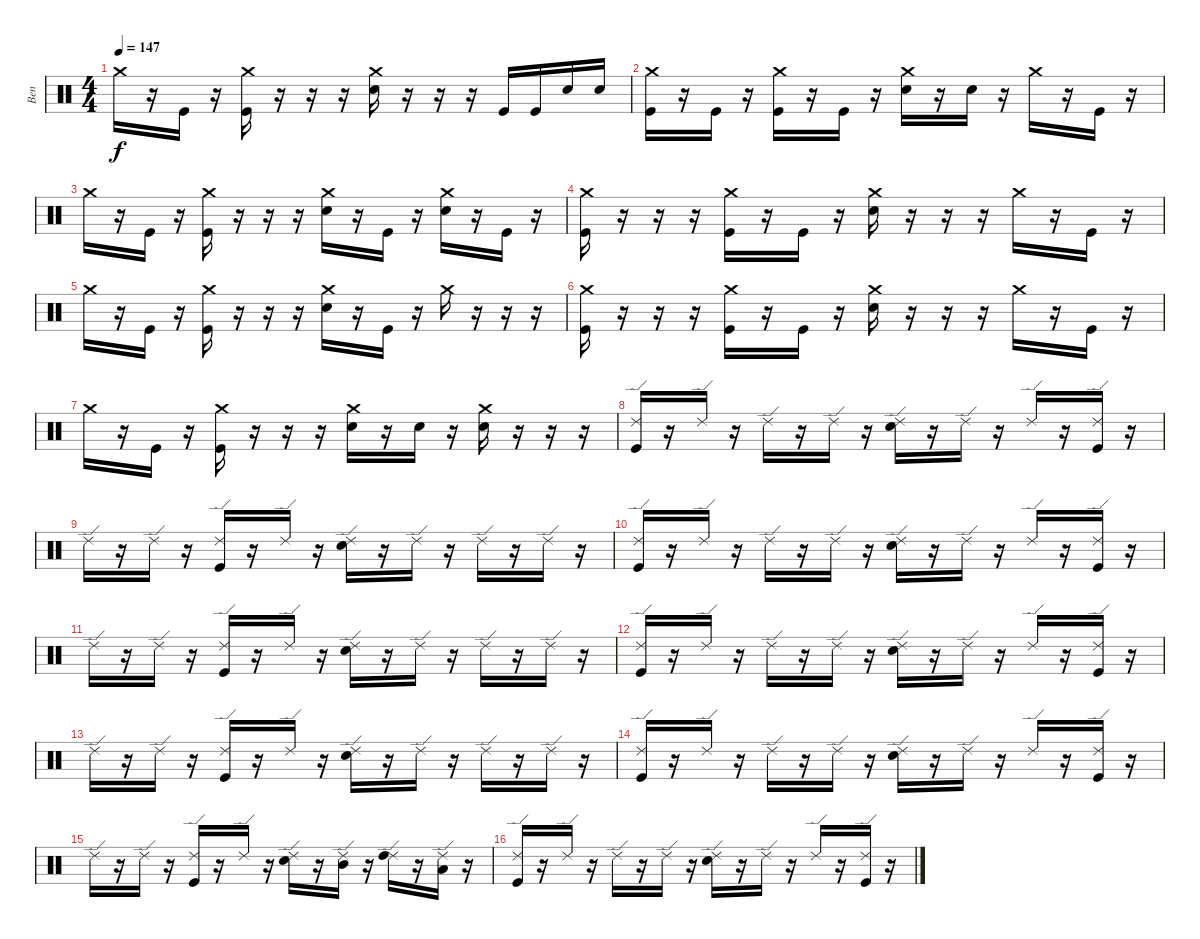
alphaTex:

\track ("Ben" "Ben") {instrument percussion}
\staff {score}
\articulation defaults
\ts (4 4)
\tempo 147
\clef neutral
\ks c "Crash medium (hit)".16{dy f}
r.16 "Kick (hit)".16 r.16 ("Crash medium (hit)" "Kick (hit)").16 r.16 r.16 r.16 ("Crash medium (hit)" "Electric Snare (hit)").16 r.16 r.16 r.16 "Kick (hit)".16 "Kick (hit)".16 "Electric Snare (hit)".16 "Electric Snare (hit)".16 |
("Crash medium (hit)" "Kick (hit)").16 r.16 "Kick (hit)".16 r.16 ("Crash medium (hit)" "Kick (hit)").16 r.16 "Kick (hit)".16 r.16 ("Crash medium (hit)" "Electric Snare (hit)").16 r.16 "Electric Snare (hit)".16 r.16 "Crash medium (hit)".16 r.16 "Kick (hit)".16 r.16 |
"Crash medium (hit)".16 r.16 "Kick (hit)".16 r.16 ("Crash medium (hit)" "Kick (hit)").16 r.16 r.16 r.16 ("Crash medium (hit)" "Electric Snare (hit)").16 r.16 "Kick (hit)".16 r.16 ("Crash medium (hit)" "Electric Snare (hit)").16 r.16 "Kick (hit)".16 r.16 |
("Crash medium (hit)" "Kick (hit)").16 r.16 r.16 r.16 ("Crash medium (hit)" "Kick (hit)").16 r.16 "Kick (hit)".16 r.16 ("Crash medium (hit)" "Electric Snare (hit)").16 r.16 r.16 r.16 "Crash medium (hit)".16 r.16 "Kick (hit)".16 r.16 |
"Crash medium (hit)".16 r.16 "Kick (hit)".16 r.16 ("Crash medium (hit)" "Kick (hit)").16 r.16 r.16 r.16 ("Crash medium (hit)" "Electric Snare (hit)").16 r.16 "Kick (hit)".16 r.16 "Crash medium (hit)".16 r.16 r.16 r.16 |
("Crash medium (hit)" "Kick (hit)").16 r.16 r.16 r.16 ("Crash medium (hit)" "Kick (hit)").16 r.16 "Kick (hit)".16 r.16 ("Crash medium (hit)" "Electric Snare (hit)").16 r.16 r.16 r.16 "Crash medium (hit)".16 r.16 "Kick (hit)".16 r.16 |
"Crash medium (hit)".16 r.16 "Kick (hit)".16 r.16 ("Crash medium (hit)" "Kick (hit)").16 r.16 r.16 r.16 ("Crash medium (hit)" "Electric Snare (hit)").16 r.16 "Electric Snare (hit)".16 r.16 ("Crash medium (hit)" "Electric Snare (hit)").16 r.16 r.16 r.16 |
("Ride (edge) 2" "Kick (hit)").16 r.16 "Ride (edge) 2".16 r.16 "Ride (edge) 2".16 r.16 "Ride (edge) 2".16 r.16 ("Ride (edge) 2" "Electric Snare (hit)").16 r.16 "Ride (edge) 2".16 r.16 "Ride (edge) 2".16 r.16 ("Ride (edge) 2" "Kick (hit)").16 r.16 |
"Ride (edge) 2".16 r.16 "Ride (edge) 2".16 r.16 ("Ride (edge) 2" "Kick (hit)").16 r.16 "Ride (edge) 2".16 r.16 ("Ride (edge) 2" "Electric Snare (hit)").16 r.16 "Ride (edge) 2".16 r.16 "Ride (edge) 2".16 r.16 "Ride (edge) 2".16 r.16 |
("Ride (edge) 2" "Kick (hit)").16 r.16 "Ride (edge) 2".16 r.16 "Ride (edge) 2".16 r.16 "Ride (edge) 2".16 r.16 ("Ride (edge) 2" "Electric Snare (hit)").16 r.16 "Ride (edge) 2".16 r.16 "Ride (edge) 2".16 r.16 ("Ride (edge) 2" "Kick (hit)").16 r.16 |
"Ride (edge) 2".16 r.16 "Ride (edge) 2".16 r.16 ("Ride (edge) 2" "Kick (hit)").16 r.16 "Ride (edge) 2".16 r.16 ("Ride (edge) 2" "Electric Snare (hit)").16 r.16 "Ride (edge) 2".16 r.16 "Ride (edge) 2".16 r.16 "Ride (edge) 2".16 r.16 |
("Ride (edge) 2" "Kick (hit)").16 r.16 "Ride (edge) 2".16 r.16 "Ride (edge) 2".16 r.16 "Ride (edge) 2".16 r.16 ("Ride (edge) 2" "Electric Snare (hit)").16 r.16 "Ride (edge) 2".16 r.16 "Ride (edge) 2".16 r.16 ("Ride (edge) 2" "Kick (hit)").16 r.16 |
"Ride (edge) 2".16 r.16 "Ride (edge) 2".16 r.16 ("Ride (edge) 2" "Kick (hit)").16 r.16 "Ride (edge) 2".16 r.16 ("Ride (edge) 2" "Electric Snare (hit)").16 r.16 "Ride (edge) 2".16 r.16 "Ride (edge) 2".16 r.16 "Ride (edge) 2".16 r.16 |
("Ride (edge) 2" "Kick (hit)").16 r.16 "Ride (edge) 2".16 r.16 "Ride (edge) 2".16 r.16 "Ride (edge) 2".16 r.16 ("Ride (edge) 2" "Electric Snare (hit)").16 r.16 "Ride (edge) 2".16 r.16 "Ride (edge) 2".16 r.16 ("Ride (edge) 2" "Kick (hit)").16 r.16 |
"Ride (edge) 2".16 r.16 "Ride (edge) 2".16 r.16 ("Ride (edge) 2" "Kick (hit)").16 r.16 "Ride (edge) 2".16 r.16 ("Ride (edge) 2" "Electric Snare (hit)").16 r.16 ("Ride (edge) 2" "Mid Tom (hit)").16 r.16 ("Ride (edge) 2" "High Tom (hit)").16 r.16 ("Ride (edge) 2" "Low Tom (hit)").16 r.16 |
("Ride (edge) 2" "Kick (hit)").16 r.16 "Ride (edge) 2".16 r.16 "Ride (edge) 2".16 r.16 "Ride (edge) 2".16 r.16 ("Ride (edge) 2" "Electric Snare (hit)").16 r.16 "Ride (edge) 2".16 r.16 "Ride (edge) 2".16 r.16 ("Ride (edge) 2" "Kick (hit)").16 r.16
